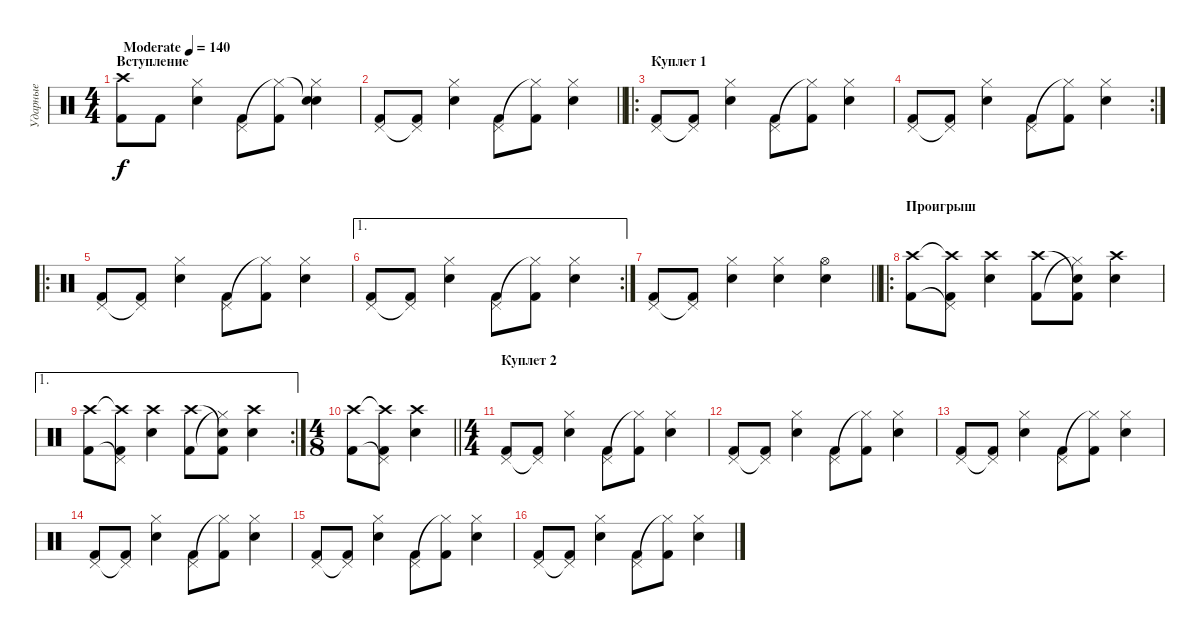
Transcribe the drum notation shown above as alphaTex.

\track ("Ударные" "Ударные") {instrument percussion}
\staff {score}
\articulation defaults
\ts (4 4)
\section ("" "Вступление")
\tempo (140 "Moderate")
\clef neutral
\ks c
("Crash high (hit)" "Kick (hit) 2").8{dy f} "Kick (hit) 2".8 ("Hi-Hat (closed)" "Snare (hit) 2").4 ("Pedal Hi-Hat (hit)" "Kick (hit) 2").8 ("Hi-Hat (closed)"{t} "Kick (hit) 2").8 ("Snare (hit)"{t} "Hi-Hat (closed)" "Snare (hit) 2").4 |
\barLineRight lightlight
("Pedal Hi-Hat (hit)" "Kick (hit) 2").8 ("Pedal Hi-Hat (hit)"{t} "Kick (hit) 2").8 ("Hi-Hat (closed)" "Snare (hit) 2").4 ("Pedal Hi-Hat (hit)" "Kick (hit) 2").8 ("Hi-Hat (closed)"{t} "Kick (hit) 2").8 ("Hi-Hat (closed)" "Snare (hit) 2").4 |
\ro
\section ("" "Куплет 1")
("Pedal Hi-Hat (hit)" "Kick (hit) 2").8 ("Pedal Hi-Hat (hit)"{t} "Kick (hit) 2").8 ("Hi-Hat (closed)" "Snare (hit) 2").4 ("Pedal Hi-Hat (hit)" "Kick (hit) 2").8 ("Hi-Hat (closed)"{t} "Kick (hit) 2").8 ("Hi-Hat (closed)" "Snare (hit) 2").4 |
\rc 2
("Pedal Hi-Hat (hit)" "Kick (hit) 2").8 ("Pedal Hi-Hat (hit)"{t} "Kick (hit) 2").8 ("Hi-Hat (closed)" "Snare (hit) 2").4 ("Pedal Hi-Hat (hit)" "Kick (hit) 2").8 ("Hi-Hat (closed)"{t} "Kick (hit) 2").8 ("Hi-Hat (closed)" "Snare (hit) 2").4 |
\ro
("Pedal Hi-Hat (hit)" "Kick (hit) 2").8 ("Pedal Hi-Hat (hit)"{t} "Kick (hit) 2").8 ("Hi-Hat (closed)" "Snare (hit) 2").4 ("Pedal Hi-Hat (hit)" "Kick (hit) 2").8 ("Hi-Hat (closed)"{t} "Kick (hit) 2").8 ("Hi-Hat (closed)" "Snare (hit) 2").4 |
\ae 1
\rc 2
("Pedal Hi-Hat (hit)" "Kick (hit) 2").8 ("Pedal Hi-Hat (hit)"{t} "Kick (hit) 2").8 ("Hi-Hat (closed)" "Snare (hit) 2").4 ("Pedal Hi-Hat (hit)" "Kick (hit) 2").8 ("Hi-Hat (closed)"{t} "Kick (hit) 2").8 ("Hi-Hat (closed)" "Snare (hit) 2").4 |
\barLineRight lightlight
("Pedal Hi-Hat (hit)" "Kick (hit) 2").8 ("Pedal Hi-Hat (hit)"{t} "Kick (hit) 2").8 ("Hi-Hat (closed)" "Snare (hit) 2").4 ("Hi-Hat (closed)" "Snare (hit) 2").4 ("Hi-Hat (open)" "Snare (hit) 2").4 |
\ro
\section ("" "Проигрыш")
("Crash high (hit)" "Kick (hit) 2").8 ("Crash high (hit)"{t} "Pedal Hi-Hat (hit)"{t} "Kick (hit) 2").8 ("Crash high (hit)" "Snare (hit) 2").4 ("Crash high (hit)" "Kick (hit) 2").8 ("Snare (hit)"{t} "Hi-Hat (closed)"{t} "Kick (hit) 2").8 ("Crash high (hit)" "Snare (hit) 2").4 |
\ae 1
\rc 2
("Crash high (hit)" "Kick (hit) 2").8 ("Crash high (hit)"{t} "Pedal Hi-Hat (hit)"{t} "Kick (hit) 2").8 ("Crash high (hit)" "Snare (hit) 2").4 ("Crash high (hit)" "Kick (hit) 2").8 ("Snare (hit)"{t} "Hi-Hat (closed)"{t} "Kick (hit) 2").8 ("Crash high (hit)" "Snare (hit) 2").4 |
\ts (4 8)
\barLineRight lightlight
("Crash high (hit)" "Kick (hit) 2").8 ("Crash high (hit)"{t} "Pedal Hi-Hat (hit)"{t} "Kick (hit) 2").8 ("Crash high (hit)" "Snare (hit) 2").4 |
\ts (4 4)
\section ("" "Куплет 2")
("Pedal Hi-Hat (hit)" "Kick (hit) 2").8 ("Pedal Hi-Hat (hit)"{t} "Kick (hit) 2").8 ("Hi-Hat (closed)" "Snare (hit) 2").4 ("Pedal Hi-Hat (hit)" "Kick (hit) 2").8 ("Hi-Hat (closed)"{t} "Kick (hit) 2").8 ("Hi-Hat (closed)" "Snare (hit) 2").4 |
("Pedal Hi-Hat (hit)" "Kick (hit) 2").8 ("Pedal Hi-Hat (hit)"{t} "Kick (hit) 2").8 ("Hi-Hat (closed)" "Snare (hit) 2").4 ("Pedal Hi-Hat (hit)" "Kick (hit) 2").8 ("Hi-Hat (closed)"{t} "Kick (hit) 2").8 ("Hi-Hat (closed)" "Snare (hit) 2").4 |
("Pedal Hi-Hat (hit)" "Kick (hit) 2").8 ("Pedal Hi-Hat (hit)"{t} "Kick (hit) 2").8 ("Hi-Hat (closed)" "Snare (hit) 2").4 ("Pedal Hi-Hat (hit)" "Kick (hit) 2").8 ("Hi-Hat (closed)"{t} "Kick (hit) 2").8 ("Hi-Hat (closed)" "Snare (hit) 2").4 |
("Pedal Hi-Hat (hit)" "Kick (hit) 2").8 ("Pedal Hi-Hat (hit)"{t} "Kick (hit) 2").8 ("Hi-Hat (closed)" "Snare (hit) 2").4 ("Pedal Hi-Hat (hit)" "Kick (hit) 2").8 ("Hi-Hat (closed)"{t} "Kick (hit) 2").8 ("Hi-Hat (closed)" "Snare (hit) 2").4 |
("Pedal Hi-Hat (hit)" "Kick (hit) 2").8 ("Pedal Hi-Hat (hit)"{t} "Kick (hit) 2").8 ("Hi-Hat (closed)" "Snare (hit) 2").4 ("Pedal Hi-Hat (hit)" "Kick (hit) 2").8 ("Hi-Hat (closed)"{t} "Kick (hit) 2").8 ("Hi-Hat (closed)" "Snare (hit) 2").4 |
("Pedal Hi-Hat (hit)" "Kick (hit) 2").8 ("Pedal Hi-Hat (hit)"{t} "Kick (hit) 2").8 ("Hi-Hat (closed)" "Snare (hit) 2").4 ("Pedal Hi-Hat (hit)" "Kick (hit) 2").8 ("Hi-Hat (closed)"{t} "Kick (hit) 2").8 ("Hi-Hat (closed)" "Snare (hit) 2").4
